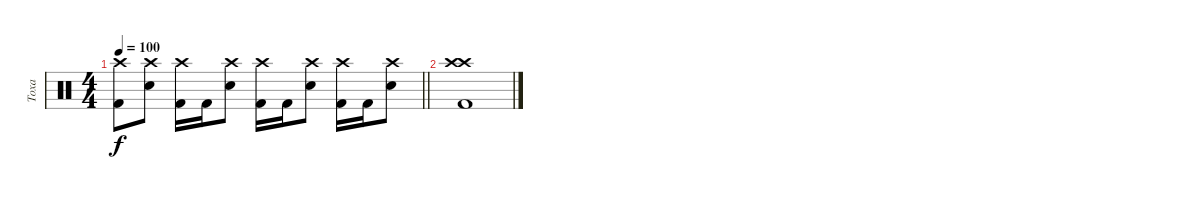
\track ("Toxa" "Toxa") {instrument percussion}
\staff {score}
\articulation defaults
\ts (4 4)
\tempo 100
\clef neutral
\barLineRight lightlight
\ks c
("Kick (hit) 2" "Crash high (hit)").8{dy f} ("Snare (hit) 2" "Crash high (hit)").8 ("Kick (hit) 2" "Crash high (hit)").16 "Kick (hit) 2".16 ("Snare (hit) 2" "Crash high (hit)").8 ("Kick (hit) 2" "Crash high (hit)").16 "Kick (hit) 2".16 ("Snare (hit) 2" "Crash high (hit)").8 ("Kick (hit) 2" "Crash high (hit)").16 "Kick (hit) 2".16 ("Snare (hit) 2" "Crash high (hit)").8 |
("Kick (hit) 2" "Crash high (hit)" "Crash high (hit)").1
